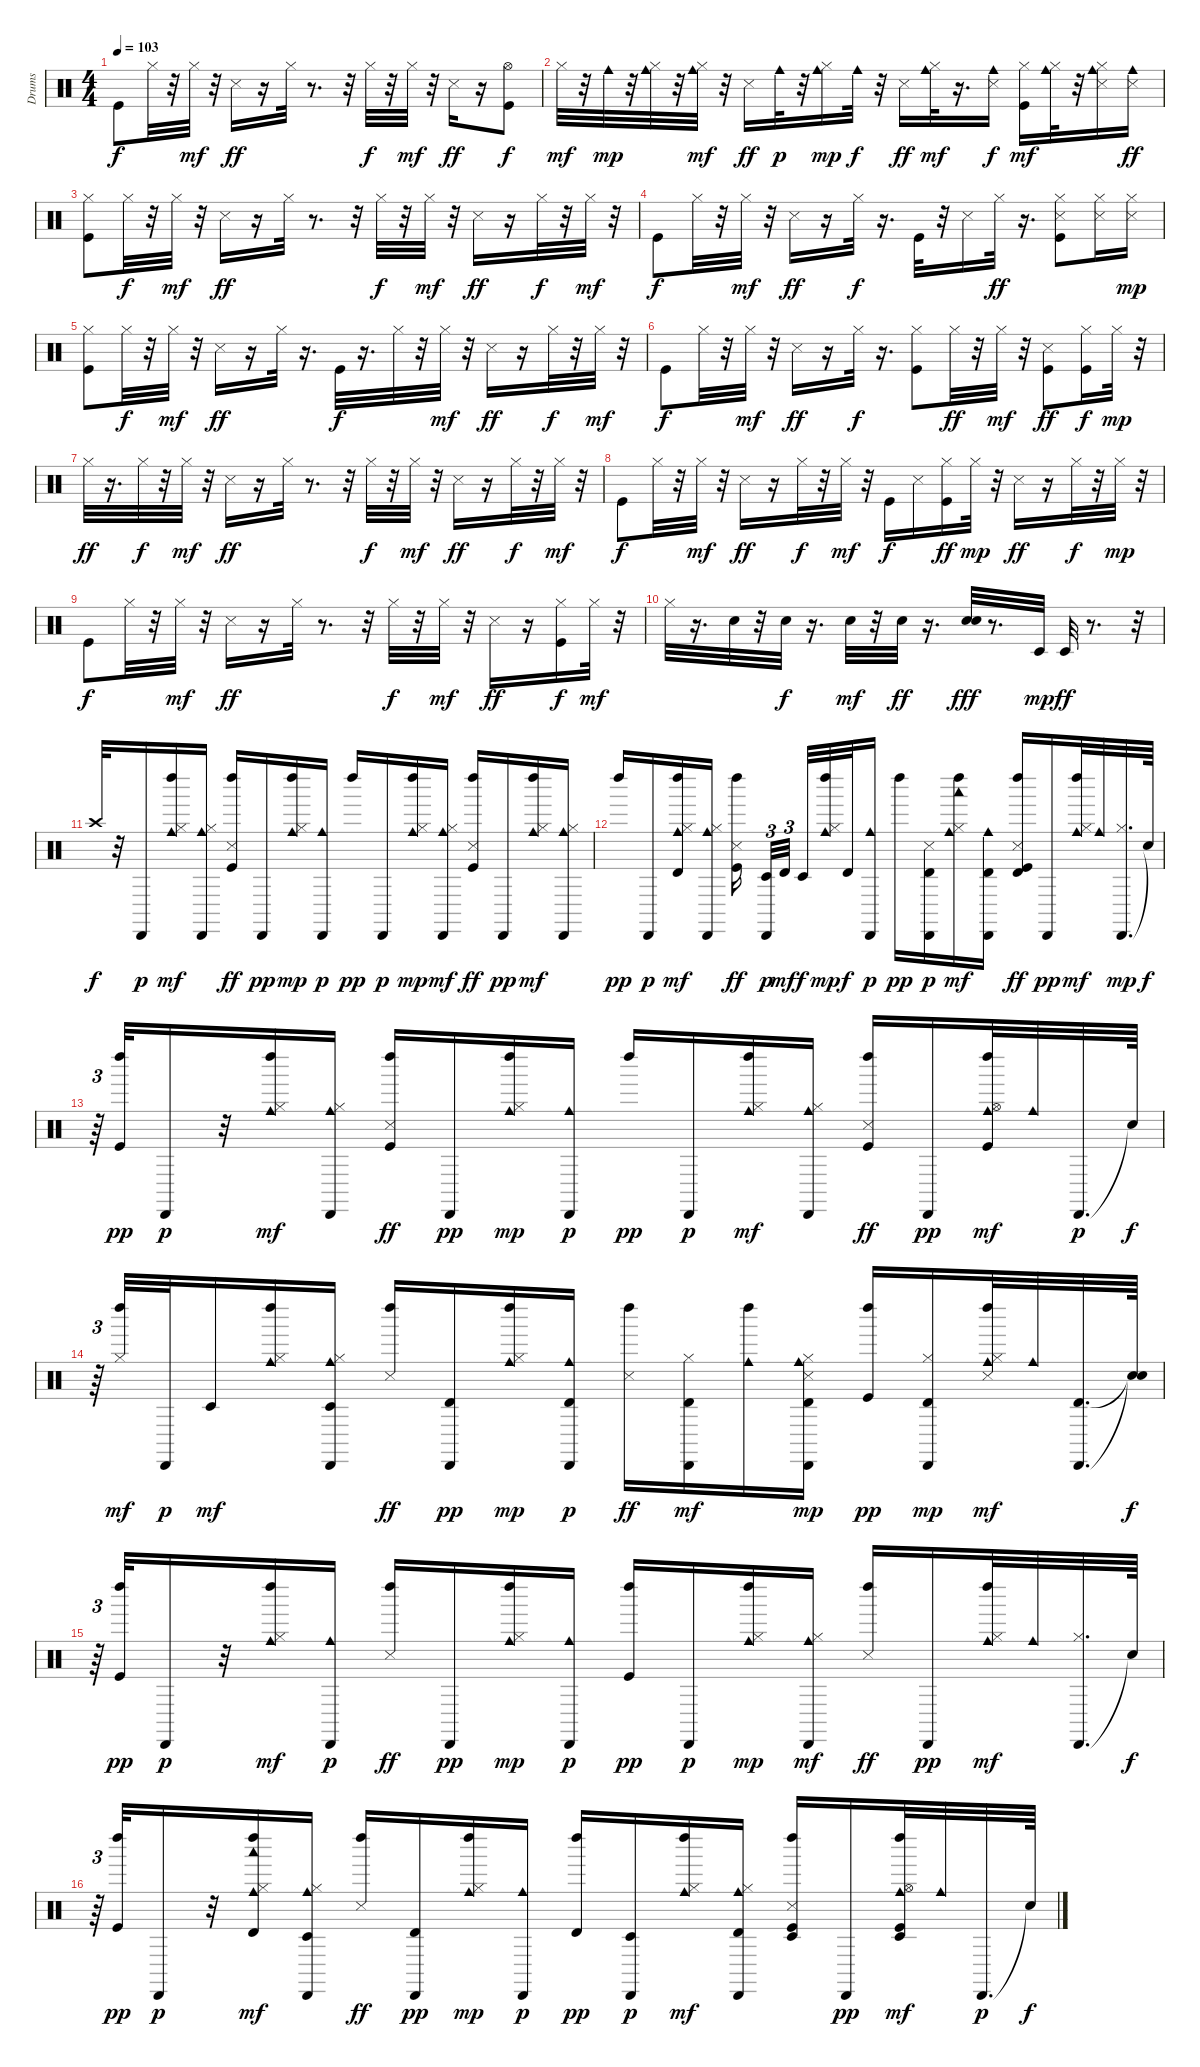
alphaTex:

\track ("Drums" "Drums") {instrument percussion}
\staff {score}
\articulation defaults
\ts (4 4)
\tempo 103
\clef neutral
\ks c "Kick (hit)".8{dy f} "Hi-Hat (closed)".32
r.32 "Hi-Hat (closed)".32{dy mf} r.32 "Snare (side stick) 3".16{dy ff} r.16 "Hi-Hat (closed)".32 r.8{d} r.32 "Hi-Hat (closed)".32{dy f} r.32 "Hi-Hat (closed)".32{dy mf} r.32 "Snare (side stick) 3".16{dy ff} r.16 ("Hi-Hat (open)" "Kick (hit)").8{dy f} |
"Hi-Hat (closed)".32{dy mf} r.32 "Cowbell medium (hit)".32{dy mp} r.32 ("Cowbell medium (hit)" "Hi-Hat (closed)").32 r.32 ("Cowbell medium (hit)" "Hi-Hat (closed)").32{dy mf} r.32 "Snare (side stick) 3".16{dy ff} "Cowbell medium (hit)".32{dy p} r.32 ("Cowbell medium (hit)" "Hi-Hat (closed)").16{dy mp} "Cowbell medium (hit)".32{dy f} r.32 "Snare (side stick) 3".16{dy ff} ("Cowbell medium (hit)" "Hi-Hat (closed)").32{dy mf} r.16{d} ("Cowbell medium (hit)" "Snare (side stick) 3").16{dy f} ("Kick (hit)" "Hi-Hat (closed)").16{dy mf} ("Cowbell medium (hit)" "Hi-Hat (closed)").32 r.32 ("Snare (side stick) 3" "Hi-Hat (closed)" "Cowbell medium (hit)").16 ("Cowbell medium (hit)" "Snare (side stick) 3").16{dy ff} |
("Kick (hit)" "Hi-Hat (closed)").8 "Hi-Hat (closed)".32{dy f} r.32 "Hi-Hat (closed)".32{dy mf} r.32 "Snare (side stick) 3".16{dy ff} r.16 "Hi-Hat (closed)".32 r.8{d} r.32 "Hi-Hat (closed)".32{dy f} r.32 "Hi-Hat (closed)".32{dy mf} r.32 "Snare (side stick) 3".16{dy ff} r.16 "Hi-Hat (closed)".32{dy f} r.32 "Hi-Hat (closed)".32{dy mf} r.32 |
"Kick (hit)".8{dy f} "Hi-Hat (closed)".32 r.32 "Hi-Hat (closed)".32{dy mf} r.32 "Snare (side stick) 3".16{dy ff} r.16 "Hi-Hat (closed)".32{dy f} r.16{d} "Kick (hit)".32 r.32 "Snare (side stick) 3".16 "Hi-Hat (closed)".32{dy ff} r.16{d} ("Kick (hit)" "Snare (side stick) 3" "Hi-Hat (closed)").8 ("Snare (side stick) 3" "Hi-Hat (closed)").16 ("Hi-Hat (closed)" "Snare (side stick) 3").16{dy mp} |
("Kick (hit)" "Hi-Hat (closed)").8 "Hi-Hat (closed)".32{dy f} r.32 "Hi-Hat (closed)".32{dy mf} r.32 "Snare (side stick) 3".16{dy ff} r.16 "Hi-Hat (closed)".32 r.16{d} "Kick (hit)".32{dy f} r.16{d} "Hi-Hat (closed)".32 r.32 "Hi-Hat (closed)".32{dy mf} r.32 "Snare (side stick) 3".16{dy ff} r.16 "Hi-Hat (closed)".32{dy f} r.32 "Hi-Hat (closed)".32{dy mf} r.32 |
"Kick (hit)".8{dy f} "Hi-Hat (closed)".32 r.32 "Hi-Hat (closed)".32{dy mf} r.32 "Snare (side stick) 3".16{dy ff} r.16 "Hi-Hat (closed)".32{dy f} r.16{d} ("Kick (hit)" "Hi-Hat (closed)").8 "Hi-Hat (closed)".32{dy ff} r.32 "Hi-Hat (closed)".32{dy mf} r.32 ("Kick (hit)" "Snare (side stick) 3").8{dy ff} ("Kick (hit)" "Hi-Hat (closed)").16{dy f} "Hi-Hat (closed)".32{dy mp} r.32 |
"Hi-Hat (closed)".32{dy ff} r.16{d} "Hi-Hat (closed)".32{dy f} r.32 "Hi-Hat (closed)".32{dy mf} r.32 "Snare (side stick) 3".16{dy ff} r.16 "Hi-Hat (closed)".32 r.8{d} r.32 "Hi-Hat (closed)".32{dy f} r.32 "Hi-Hat (closed)".32{dy mf} r.32 "Snare (side stick) 3".16{dy ff} r.16 "Hi-Hat (closed)".32{dy f} r.32 "Hi-Hat (closed)".32{dy mf} r.32 |
"Kick (hit)".8{dy f} "Hi-Hat (closed)".32 r.32 "Hi-Hat (closed)".32{dy mf} r.32 "Snare (side stick) 3".16{dy ff} r.16 "Hi-Hat (closed)".32{dy f} r.32 "Hi-Hat (closed)".32{dy mf} r.32 "Kick (hit)".16{dy f} "Snare (side stick) 3".16 ("Kick (hit)" "Hi-Hat (closed)").16{dy ff} "Hi-Hat (closed)".32{dy mp} r.32 "Snare (side stick) 3".16{dy ff} r.16 "Hi-Hat (closed)".32{dy f} r.32 "Hi-Hat (closed)".32{dy mp} r.32 |
"Kick (hit)".8{dy f} "Hi-Hat (closed)".32 r.32 "Hi-Hat (closed)".32{dy mf} r.32 "Snare (side stick) 3".16{dy ff} r.16 "Hi-Hat (closed)".32 r.8{d} r.32 "Hi-Hat (closed)".32{dy f} r.32 "Hi-Hat (closed)".32{dy mf} r.32 "Snare (side stick) 3".16{dy ff} r.16 ("Kick (hit)" "Hi-Hat (closed)").16{dy f} "Hi-Hat (closed)".32{dy mf} r.32 |
"Hi-Hat (closed)".32 r.16{d} "Electric Snare (hit)".32 r.32 "Electric Snare (hit)".32{dy f} r.16{d} "Electric Snare (hit)".32{dy mf} r.32 "Electric Snare (hit)".32{dy ff} r.16{d} ("Electric Snare (hit)" "Electric Snare (hit)").32{dy fff} r.8{d} "Timbale low (hit)".32{dy mp} "Timbale low (hit)".32{dy ff} r.8{d} r.32 |
"Crash high (hit)".32{dy f} r.32 "Cabasa (hit)".16{dy p} ("Left Maraca (hit)" "Hi-Hat (closed)" "Cowbell medium (hit)").16{dy mf} ("Cowbell medium (hit)" "Cabasa (hit)" "Hi-Hat (closed)").16 ("Left Maraca (hit)" "Kick (hit)" "Snare (side stick) 3").16{dy ff} "Cabasa (hit)".16{dy pp} ("Left Maraca (hit)" "Hi-Hat (closed)" "Cowbell medium (hit)").16{dy mp} ("Cowbell medium (hit)" "Cabasa (hit)").16{dy p} "Left Maraca (hit)".16{dy pp} "Cabasa (hit)".16{dy p} ("Left Maraca (hit)" "Hi-Hat (closed)" "Cowbell medium (hit)").16{dy mp} ("Cowbell medium (hit)" "Cabasa (hit)" "Hi-Hat (closed)").16{dy mf} ("Left Maraca (hit)" "Kick (hit)" "Snare (side stick) 3").16{dy ff} "Cabasa (hit)".16{dy pp} ("Left Maraca (hit)" "Hi-Hat (closed)" "Cowbell medium (hit)").16{dy mf} ("Cowbell medium (hit)" "Cabasa (hit)" "Hi-Hat (closed)").16 |
"Left Maraca (hit)".16{dy pp} "Cabasa (hit)".16{dy p} ("Timbale high (hit)" "Left Maraca (hit)" "Hi-Hat (closed)" "Cowbell medium (hit)").16{dy mf} ("Cowbell medium (hit)" "Cabasa (hit)" "Hi-Hat (closed)").16 ("Left Maraca (hit)" "Kick (hit)" "Snare (side stick) 3").16{dy ff beam splitsecondary} ("Cabasa (hit)" "Timbale low (hit)").32{tu (3 2) dy p} "Timbale high (hit)".32{tu (3 2) dy mf beam splitsecondary} "Timbale low (hit)".32{dy f} ("Left Maraca (hit)" "Hi-Hat (closed)" "Cowbell medium (hit)").32{dy mp} "Timbale high (hit)".32{dy f} ("Cowbell medium (hit)" "Cabasa (hit)").16{dy p} "Left Maraca (hit)".16{dy pp} ("Timbale high (hit)" "Cabasa (hit)" "Snare (side stick) 3").16{dy p} ("Left Maraca (hit)" "Hi-Hat (closed)" "Cowbell medium (hit)" "Woodblock low (hit)").16{dy mf} ("Cowbell medium (hit)" "Cabasa (hit)" "Timbale high (hit)").16 ("Timbale high (hit)" "Left Maraca (hit)" "Kick (hit)" "Snare (side stick) 3").16{dy ff} "Cabasa (hit)".16{dy pp} ("Left Maraca (hit)" "Hi-Hat (closed)" "Cowbell medium (hit)").32{dy mf} "Cowbell medium (hit)".32 ("Cabasa (hit)" "Hi-Hat (closed)").32{d dy mp} "Snare (hit)"{t}.64{dy f} |
r.64{tu (3 2)} ("Left Maraca (hit)" "Kick (hit)").32{dy pp} "Cabasa (hit)".16{dy p} r.32 ("Left Maraca (hit)" "Hi-Hat (closed)" "Cowbell medium (hit)").16{dy mf} ("Cowbell medium (hit)" "Cabasa (hit)" "Hi-Hat (closed)").16 ("Left Maraca (hit)" "Kick (hit)" "Snare (side stick) 3").16{dy ff} "Cabasa (hit)".16{dy pp} ("Left Maraca (hit)" "Hi-Hat (closed)" "Cowbell medium (hit)").16{dy mp} ("Cowbell medium (hit)" "Cabasa (hit)").16{dy p} "Left Maraca (hit)".16{dy pp} "Cabasa (hit)".16{dy p} ("Left Maraca (hit)" "Hi-Hat (closed)" "Cowbell medium (hit)").16{dy mf} ("Cowbell medium (hit)" "Cabasa (hit)" "Hi-Hat (closed)").16 ("Left Maraca (hit)" "Kick (hit)" "Snare (side stick) 3").16{dy ff} "Cabasa (hit)".16{dy pp} ("Left Maraca (hit)" "Hi-Hat (open)" "Kick (hit)" "Cowbell medium (hit)").32{dy mf} "Cowbell medium (hit)".32 "Cabasa (hit)".32{d dy p} "Snare (hit)"{t}.64{dy f} |
r.64{tu (3 2)} ("Left Maraca (hit)" "Hi-Hat (closed)").32{dy mf} "Cabasa (hit)".32{dy p} "Timbale low (hit)".16{dy mf} ("Left Maraca (hit)" "Hi-Hat (closed)" "Cowbell medium (hit)").16 ("Cowbell medium (hit)" "Timbale low (hit)" "Cabasa (hit)" "Hi-Hat (closed)").16 ("Left Maraca (hit)" "Snare (side stick) 3").16{dy ff} ("Timbale high (hit)" "Cabasa (hit)").16{dy pp} ("Left Maraca (hit)" "Hi-Hat (closed)" "Cowbell medium (hit)").16{dy mp} ("Cowbell medium (hit)" "Cabasa (hit)" "Timbale high (hit)").16{dy p} ("Left Maraca (hit)" "Snare (side stick) 3").16{dy ff} ("Cabasa (hit)" "Hi-Hat (closed)" "Timbale high (hit)").16{dy mf} ("Left Maraca (hit)" "Cowbell medium (hit)").16 ("Cowbell medium (hit)" "Cabasa (hit)" "Timbale high (hit)" "Snare (side stick) 3" "Hi-Hat (closed)").16{dy mp} ("Left Maraca (hit)" "Kick (hit)").16{dy pp} ("Timbale high (hit)" "Cabasa (hit)" "Hi-Hat (closed)").16{dy mp} ("Left Maraca (hit)" "Snare (side stick) 3" "Hi-Hat (closed)" "Cowbell medium (hit)").32{dy mf} "Cowbell medium (hit)".32 ("Cabasa (hit)" "Timbale high (hit)").32{d} ("Snare (hit)"{t} "Snare (hit)"{t}).64{dy f} |
r.64{tu (3 2)} ("Left Maraca (hit)" "Kick (hit)").32{dy pp} "Cabasa (hit)".16{dy p} r.32 ("Left Maraca (hit)" "Hi-Hat (closed)" "Cowbell medium (hit)").16{dy mf} ("Cowbell medium (hit)" "Cabasa (hit)").16{dy p} ("Left Maraca (hit)" "Snare (side stick) 3").16{dy ff} "Cabasa (hit)".16{dy pp} ("Left Maraca (hit)" "Hi-Hat (closed)" "Cowbell medium (hit)").16{dy mp} ("Cowbell medium (hit)" "Cabasa (hit)").16{dy p} ("Left Maraca (hit)" "Kick (hit)").16{dy pp} "Cabasa (hit)".16{dy p} ("Left Maraca (hit)" "Hi-Hat (closed)" "Cowbell medium (hit)").16{dy mp} ("Cowbell medium (hit)" "Cabasa (hit)" "Hi-Hat (closed)").16{dy mf} ("Left Maraca (hit)" "Snare (side stick) 3").16{dy ff} "Cabasa (hit)".16{dy pp} ("Left Maraca (hit)" "Hi-Hat (closed)" "Cowbell medium (hit)").32{dy mf} "Cowbell medium (hit)".32 ("Cabasa (hit)" "Hi-Hat (closed)").32{d} "Snare (hit)"{t}.64{dy f} |
r.64{tu (3 2)} ("Left Maraca (hit)" "Kick (hit)").32{dy pp} "Cabasa (hit)".16{dy p} r.32 ("Timbale high (hit)" "Left Maraca (hit)" "Hi-Hat (closed)" "Cowbell medium (hit)" "Woodblock low (hit)").16{dy mf} ("Cowbell medium (hit)" "Timbale low (hit)" "Cabasa (hit)" "Hi-Hat (closed)").16 ("Left Maraca (hit)" "Snare (side stick) 3").16{dy ff} ("Timbale high (hit)" "Cabasa (hit)").16{dy pp} ("Left Maraca (hit)" "Hi-Hat (closed)" "Cowbell medium (hit)").16{dy mp} ("Cowbell medium (hit)" "Cabasa (hit)").16{dy p} ("Left Maraca (hit)" "Timbale high (hit)").16{dy pp} ("Timbale low (hit)" "Cabasa (hit)").16{dy p} ("Left Maraca (hit)" "Hi-Hat (closed)" "Cowbell medium (hit)").16{dy mf} ("Cowbell medium (hit)" "Cabasa (hit)" "Hi-Hat (closed)" "Timbale high (hit)").16 ("Left Maraca (hit)" "Kick (hit)" "Snare (side stick) 3" "Timbale low (hit)").16 "Cabasa (hit)".16{dy pp} ("Timbale low (hit)" "Left Maraca (hit)" "Hi-Hat (open)" "Kick (hit)" "Cowbell medium (hit)").32{dy mf} "Cowbell medium (hit)".32 "Cabasa (hit)".32{d dy p} "Snare (hit)"{t}.64{dy f}
